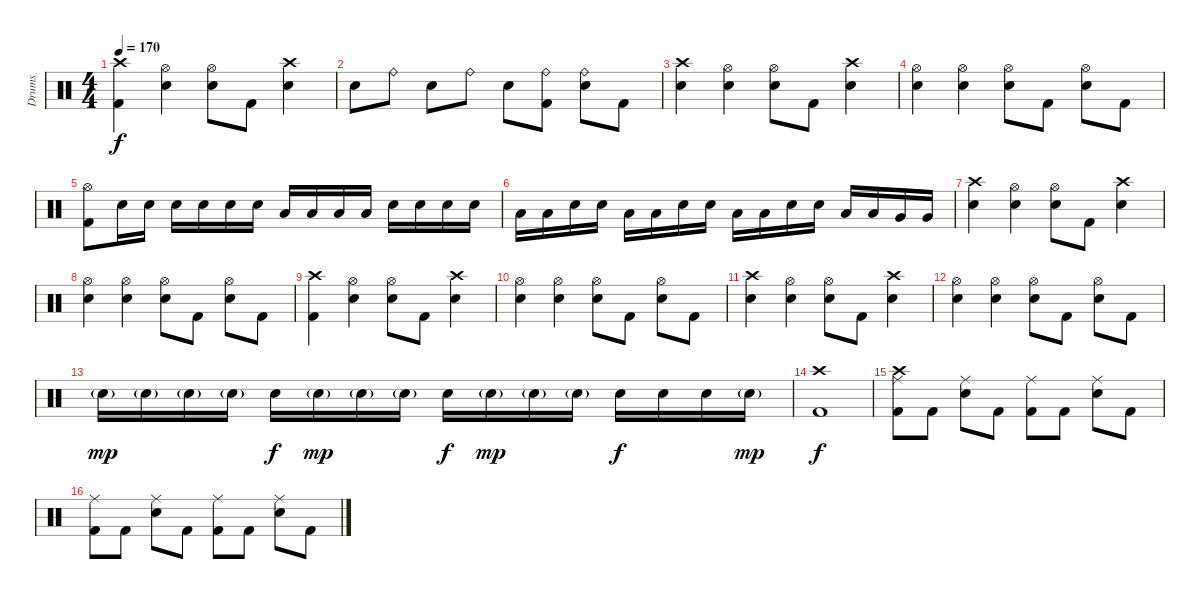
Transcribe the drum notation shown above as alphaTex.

\track ("Drums" "Drums") {instrument percussion}
\staff {score}
\articulation defaults
\ts (4 4)
\tempo 170
\clef neutral
\ks c
("Crash high (hit)" "Kick (hit) 2").4{dy f} ("Hi-Hat (open)" "Snare (hit) 2").4 ("Hi-Hat (open)" "Snare (hit) 2").8 "Kick (hit) 2".8 ("Crash high (hit)" "Snare (hit) 2").4 |
"Snare (hit) 2".8 "Ride (bell)".8 "Snare (hit) 2".8 "Ride (bell)".8 "Snare (hit) 2".8 ("Ride (bell)" "Kick (hit) 2").8 ("Ride (bell)" "Snare (hit) 2").8 "Kick (hit) 2".8 |
("Crash high (hit)" "Snare (hit) 2").4 ("Hi-Hat (open)" "Snare (hit) 2").4 ("Hi-Hat (open)" "Snare (hit) 2").8 "Kick (hit) 2".8 ("Crash high (hit)" "Snare (hit) 2").4 |
("Hi-Hat (open)" "Snare (hit) 2").4 ("Hi-Hat (open)" "Snare (hit) 2").4 ("Hi-Hat (open)" "Snare (hit) 2").8 "Kick (hit) 2".8 ("Hi-Hat (open)" "Snare (hit) 2").8 "Kick (hit) 2".8 |
("Hi-Hat (open)" "Kick (hit) 2").8 "Snare (hit) 2".16 "Snare (hit) 2".16 "Snare (hit) 2".16 "Snare (hit) 2".16 "Snare (hit) 2".16 "Snare (hit) 2".16 "Low Tom (hit)".16 "Low Tom (hit)".16 "Low Tom (hit)".16 "Low Tom (hit)".16 "Snare (hit) 2".16 "Snare (hit) 2".16 "Snare (hit) 2".16 "Snare (hit) 2".16 |
"Low Tom (hit)".16 "Low Tom (hit)".16 "Snare (hit) 2".16 "Snare (hit) 2".16 "Low Tom (hit)".16 "Low Tom (hit)".16 "Snare (hit) 2".16 "Snare (hit) 2".16 "Low Tom (hit)".16 "Low Tom (hit)".16 "Snare (hit) 2".16 "Snare (hit) 2".16 "Low Tom (hit)".16 "Low Tom (hit)".16 "Very Low Tom (hit)".16 "Very Low Tom (hit)".16 |
("Crash high (hit)" "Snare (hit) 2").4 ("Hi-Hat (open)" "Snare (hit) 2").4 ("Hi-Hat (open)" "Snare (hit) 2").8 "Kick (hit) 2".8 ("Crash high (hit)" "Snare (hit) 2").4 |
("Hi-Hat (open)" "Snare (hit) 2").4 ("Hi-Hat (open)" "Snare (hit) 2").4 ("Hi-Hat (open)" "Snare (hit) 2").8 "Kick (hit) 2".8 ("Hi-Hat (open)" "Snare (hit) 2").8 "Kick (hit) 2".8 |
("Crash high (hit)" "Kick (hit) 2").4 ("Hi-Hat (open)" "Snare (hit) 2").4 ("Hi-Hat (open)" "Snare (hit) 2").8 "Kick (hit) 2".8 ("Crash high (hit)" "Snare (hit) 2").4 |
("Hi-Hat (open)" "Snare (hit) 2").4 ("Hi-Hat (open)" "Snare (hit) 2").4 ("Hi-Hat (open)" "Snare (hit) 2").8 "Kick (hit) 2".8 ("Hi-Hat (open)" "Snare (hit) 2").8 "Kick (hit) 2".8 |
("Crash high (hit)" "Snare (hit) 2").4 ("Hi-Hat (open)" "Snare (hit) 2").4 ("Hi-Hat (open)" "Snare (hit) 2").8 "Kick (hit) 2".8 ("Crash high (hit)" "Snare (hit) 2").4 |
("Hi-Hat (open)" "Snare (hit) 2").4 ("Hi-Hat (open)" "Snare (hit) 2").4 ("Hi-Hat (open)" "Snare (hit) 2").8 "Kick (hit) 2".8 ("Hi-Hat (open)" "Snare (hit) 2").8 "Kick (hit) 2".8 |
"Snare (hit) 2"{g}.16{dy mp} "Snare (hit) 2"{g}.16 "Snare (hit) 2"{g}.16 "Snare (hit) 2"{g}.16 "Snare (hit) 2".16{dy f} "Snare (hit) 2"{g}.16{dy mp} "Snare (hit) 2"{g}.16 "Snare (hit) 2"{g}.16 "Snare (hit) 2".16{dy f} "Snare (hit) 2"{g}.16{dy mp} "Snare (hit) 2"{g}.16 "Snare (hit) 2"{g}.16 "Snare (hit) 2".16{dy f} "Snare (hit) 2".16 "Snare (hit) 2".16 "Snare (hit) 2"{g}.16{dy mp} |
("Crash high (hit)" "Kick (hit) 2").1{dy f} |
("Crash high (hit)" "Ride (middle)" "Kick (hit) 2").8 "Kick (hit) 2".8 ("Ride (middle)" "Snare (hit) 2").8 "Kick (hit) 2".8 ("Ride (middle)" "Kick (hit) 2").8 "Kick (hit) 2".8 ("Ride (middle)" "Snare (hit) 2").8 "Kick (hit) 2".8 |
("Ride (middle)" "Kick (hit) 2").8 "Kick (hit) 2".8 ("Ride (middle)" "Snare (hit) 2").8 "Kick (hit) 2".8 ("Ride (middle)" "Kick (hit) 2").8 "Kick (hit) 2".8 ("Ride (middle)" "Snare (hit) 2").8 "Kick (hit) 2".8
